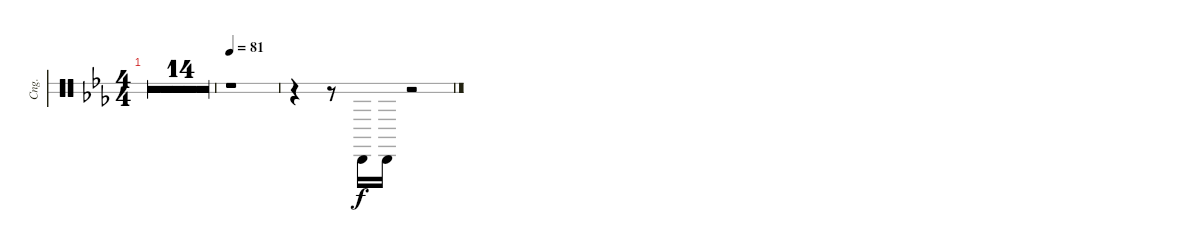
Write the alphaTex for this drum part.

\bracketExtendMode groupsimilarinstruments
\otherSystemsTrackNameOrientation horizontal
\defaultBarNumberDisplay FirstOfSystem
\track ("Congas" "Cng.") {multiBarRest instrument percussion}
\staff {score 2}
\articulation defaults
\ts (4 4)
\tempo 77
\clef neutral
\ks eb
|
|
|
|
|
|
|
|
|
|
|
|
|
|
\tempo 81
r.1{beam Down} |
r.4{beam Down} r.8{beam Down} "Conga low (hit)"{acc forcenatural}.16{beam Up} "Conga low (hit)"{acc forcenatural}.16{beam Up} r.2{beam Up}
